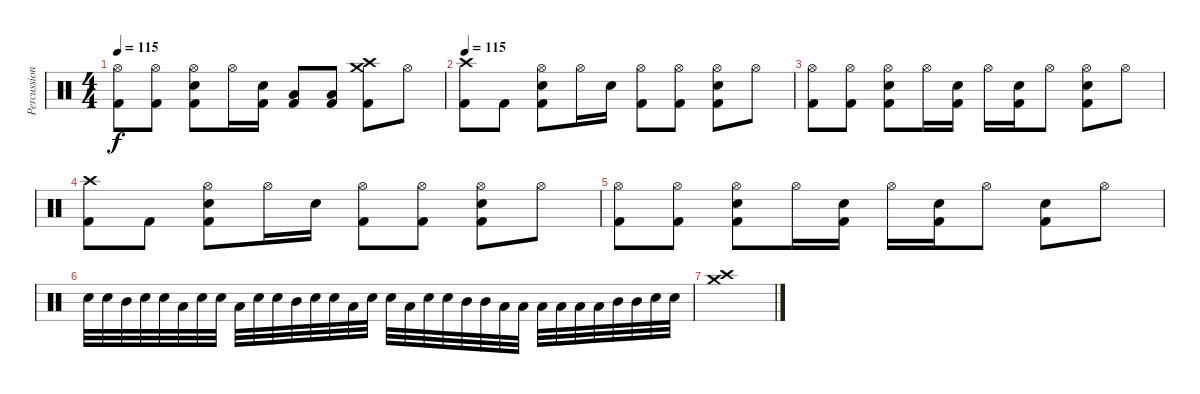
\track ("Percussion" "Percussion") {instrument percussion}
\staff {score}
\articulation defaults
\ts (4 4)
\tempo 115
\clef neutral
\ks c
("Hi-Hat (open)" "Kick (hit) 2").8{dy f} ("Hi-Hat (open)" "Kick (hit) 2").8 ("Hi-Hat (open)" "Kick (hit) 2" "Snare (hit) 2").8 "Hi-Hat (open)".16 ("Kick (hit) 2" "Snare (hit) 2").16 ("Low Floor Tom (hit)" "Kick (hit) 2").8 ("Low Floor Tom (hit)" "Kick (hit) 2").8 ("Crash medium (hit)" "Crash high (hit)" "Kick (hit) 2").8 "Hi-Hat (open)".8 |
\tempo 115
("Crash high (hit)" "Kick (hit) 2").8 "Kick (hit) 2".8 ("Hi-Hat (open)" "Kick (hit) 2" "Snare (hit) 2").8 "Hi-Hat (open)".16 "Snare (hit) 2".16 ("Hi-Hat (open)" "Kick (hit) 2").8 ("Hi-Hat (open)" "Kick (hit) 2").8 ("Hi-Hat (open)" "Kick (hit) 2" "Snare (hit) 2").8 "Hi-Hat (open)".8 |
("Hi-Hat (open)" "Kick (hit) 2").8 ("Hi-Hat (open)" "Kick (hit) 2").8 ("Hi-Hat (open)" "Kick (hit) 2" "Snare (hit) 2").8 "Hi-Hat (open)".16 ("Kick (hit) 2" "Snare (hit) 2").16 "Hi-Hat (open)".16 ("Kick (hit) 2" "Snare (hit) 2").16 "Hi-Hat (open)".8 ("Hi-Hat (open)" "Kick (hit) 2" "Snare (hit) 2").8 "Hi-Hat (open)".8 |
("Crash high (hit)" "Kick (hit) 2").8 "Kick (hit) 2".8 ("Hi-Hat (open)" "Kick (hit) 2" "Snare (hit) 2").8 "Hi-Hat (open)".16 "Snare (hit) 2".16 ("Hi-Hat (open)" "Kick (hit) 2").8 ("Hi-Hat (open)" "Kick (hit) 2").8 ("Hi-Hat (open)" "Kick (hit) 2" "Snare (hit) 2").8 "Hi-Hat (open)".8 |
("Hi-Hat (open)" "Kick (hit) 2").8 ("Hi-Hat (open)" "Kick (hit) 2").8 ("Hi-Hat (open)" "Kick (hit) 2" "Snare (hit) 2").8 "Hi-Hat (open)".16 ("Kick (hit) 2" "Snare (hit) 2").16 "Hi-Hat (open)".16 ("Kick (hit) 2" "Snare (hit) 2").16 "Hi-Hat (open)".8 ("Kick (hit) 2" "Snare (hit) 2").8 "Hi-Hat (open)".8 |
"Snare (hit) 2".32 "Snare (hit) 2".32 "Mid Tom (hit)".32 "Snare (hit) 2".32 "Snare (hit) 2".32 "Low Tom (hit)".32 "Snare (hit) 2".32 "Snare (hit) 2".32 "Low Floor Tom (hit)".32 "Snare (hit) 2".32 "Snare (hit) 2".32 "Mid Tom (hit)".32 "Snare (hit) 2".32 "Snare (hit) 2".32 "Low Tom (hit)".32 "Snare (hit) 2".32 "Snare (hit) 2".32 "Low Floor Tom (hit)".32 "Snare (hit) 2".32 "Snare (hit) 2".32 "Mid Tom (hit)".32 "Mid Tom (hit)".32 "Low Tom (hit)".32 "Low Tom (hit)".32 "Low Floor Tom (hit)".32 "Low Floor Tom (hit)".32 "Low Tom (hit)".32 "Low Tom (hit)".32 "Mid Tom (hit)".32 "Mid Tom (hit)".32 "Snare (hit) 2".32 "Snare (hit) 2".32 |
("Crash medium (hit)" "Crash high (hit)").1
